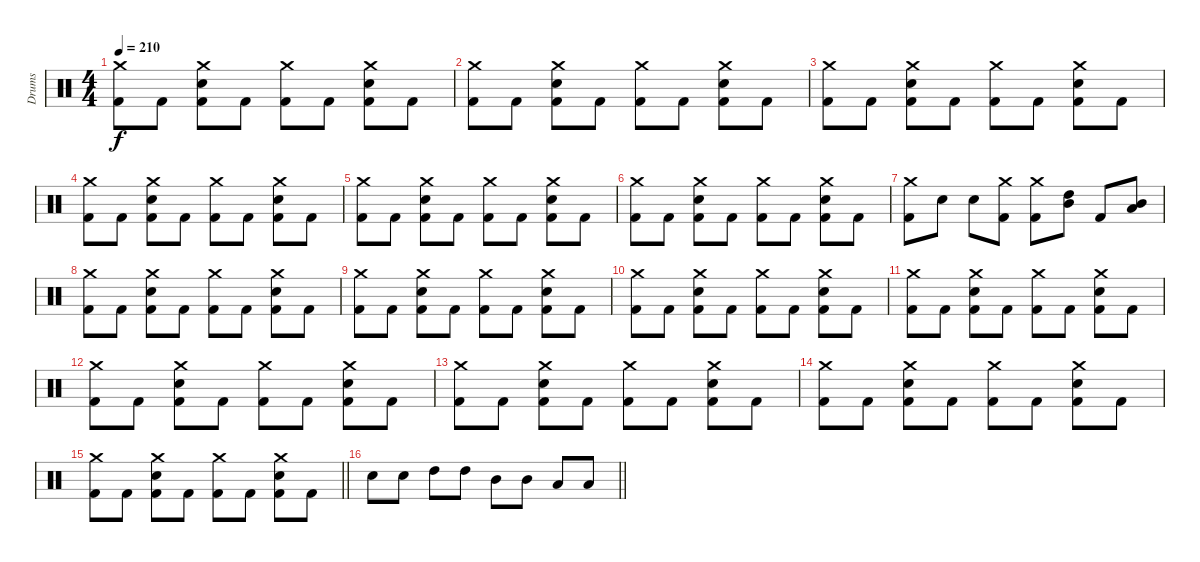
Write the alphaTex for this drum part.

\track ("Drums" "Drums") {instrument percussion}
\staff {score}
\articulation defaults
\ts (4 4)
\tempo 210
\clef neutral
\ks c
("Crash medium (hit)" "Kick (hit) 2").8{dy f} "Kick (hit) 2".8 ("Crash medium (hit)" "Electric Snare (hit)" "Kick (hit) 2").8 "Kick (hit) 2".8 ("Crash medium (hit)" "Kick (hit) 2").8 "Kick (hit) 2".8 ("Crash medium (hit)" "Electric Snare (hit)" "Kick (hit) 2").8 "Kick (hit) 2".8 |
("Crash medium (hit)" "Kick (hit) 2").8 "Kick (hit) 2".8 ("Crash medium (hit)" "Electric Snare (hit)" "Kick (hit) 2").8 "Kick (hit) 2".8 ("Crash medium (hit)" "Kick (hit) 2").8 "Kick (hit) 2".8 ("Crash medium (hit)" "Electric Snare (hit)" "Kick (hit) 2").8 "Kick (hit) 2".8 |
("Crash medium (hit)" "Kick (hit) 2").8 "Kick (hit) 2".8 ("Crash medium (hit)" "Electric Snare (hit)" "Kick (hit) 2").8 "Kick (hit) 2".8 ("Crash medium (hit)" "Kick (hit) 2").8 "Kick (hit) 2".8 ("Crash medium (hit)" "Electric Snare (hit)" "Kick (hit) 2").8 "Kick (hit) 2".8 |
("Crash medium (hit)" "Kick (hit) 2").8 "Kick (hit) 2".8 ("Crash medium (hit)" "Electric Snare (hit)" "Kick (hit) 2").8 "Kick (hit) 2".8 ("Crash medium (hit)" "Kick (hit) 2").8 "Kick (hit) 2".8 ("Crash medium (hit)" "Electric Snare (hit)" "Kick (hit) 2").8 "Kick (hit) 2".8 |
("Crash medium (hit)" "Kick (hit) 2").8 "Kick (hit) 2".8 ("Crash medium (hit)" "Electric Snare (hit)" "Kick (hit) 2").8 "Kick (hit) 2".8 ("Crash medium (hit)" "Kick (hit) 2").8 "Kick (hit) 2".8 ("Crash medium (hit)" "Electric Snare (hit)" "Kick (hit) 2").8 "Kick (hit) 2".8 |
("Crash medium (hit)" "Kick (hit) 2").8 "Kick (hit) 2".8 ("Crash medium (hit)" "Electric Snare (hit)" "Kick (hit) 2").8 "Kick (hit) 2".8 ("Crash medium (hit)" "Kick (hit) 2").8 "Kick (hit) 2".8 ("Crash medium (hit)" "Electric Snare (hit)" "Kick (hit) 2").8 "Kick (hit) 2".8 |
("Crash medium (hit)" "Kick (hit) 2").8 "Electric Snare (hit)".8 "Electric Snare (hit)".8 ("Crash medium (hit)" "Kick (hit) 2").8 ("Crash medium (hit)" "Kick (hit) 2").8 ("High Tom (hit)" "Mid Tom (hit)").8 "Kick (hit) 2".8 ("Mid Tom (hit)" "Low Tom (hit)").8 |
("Crash medium (hit)" "Kick (hit) 2").8 "Kick (hit) 2".8 ("Crash medium (hit)" "Electric Snare (hit)" "Kick (hit) 2").8 "Kick (hit) 2".8 ("Crash medium (hit)" "Kick (hit) 2").8 "Kick (hit) 2".8 ("Crash medium (hit)" "Electric Snare (hit)" "Kick (hit) 2").8 "Kick (hit) 2".8 |
("Crash medium (hit)" "Kick (hit) 2").8 "Kick (hit) 2".8 ("Crash medium (hit)" "Electric Snare (hit)" "Kick (hit) 2").8 "Kick (hit) 2".8 ("Crash medium (hit)" "Kick (hit) 2").8 "Kick (hit) 2".8 ("Crash medium (hit)" "Electric Snare (hit)" "Kick (hit) 2").8 "Kick (hit) 2".8 |
("Crash medium (hit)" "Kick (hit) 2").8 "Kick (hit) 2".8 ("Crash medium (hit)" "Electric Snare (hit)" "Kick (hit) 2").8 "Kick (hit) 2".8 ("Crash medium (hit)" "Kick (hit) 2").8 "Kick (hit) 2".8 ("Crash medium (hit)" "Electric Snare (hit)" "Kick (hit) 2").8 "Kick (hit) 2".8 |
("Crash medium (hit)" "Kick (hit) 2").8 "Kick (hit) 2".8 ("Crash medium (hit)" "Electric Snare (hit)" "Kick (hit) 2").8 "Kick (hit) 2".8 ("Crash medium (hit)" "Kick (hit) 2").8 "Kick (hit) 2".8 ("Crash medium (hit)" "Electric Snare (hit)" "Kick (hit) 2").8 "Kick (hit) 2".8 |
("Crash medium (hit)" "Kick (hit) 2").8 "Kick (hit) 2".8 ("Crash medium (hit)" "Electric Snare (hit)" "Kick (hit) 2").8 "Kick (hit) 2".8 ("Crash medium (hit)" "Kick (hit) 2").8 "Kick (hit) 2".8 ("Crash medium (hit)" "Electric Snare (hit)" "Kick (hit) 2").8 "Kick (hit) 2".8 |
("Crash medium (hit)" "Kick (hit) 2").8 "Kick (hit) 2".8 ("Crash medium (hit)" "Electric Snare (hit)" "Kick (hit) 2").8 "Kick (hit) 2".8 ("Crash medium (hit)" "Kick (hit) 2").8 "Kick (hit) 2".8 ("Crash medium (hit)" "Electric Snare (hit)" "Kick (hit) 2").8 "Kick (hit) 2".8 |
("Crash medium (hit)" "Kick (hit) 2").8 "Kick (hit) 2".8 ("Crash medium (hit)" "Electric Snare (hit)" "Kick (hit) 2").8 "Kick (hit) 2".8 ("Crash medium (hit)" "Kick (hit) 2").8 "Kick (hit) 2".8 ("Crash medium (hit)" "Electric Snare (hit)" "Kick (hit) 2").8 "Kick (hit) 2".8 |
\barLineRight lightlight
("Crash medium (hit)" "Kick (hit) 2").8 "Kick (hit) 2".8 ("Crash medium (hit)" "Electric Snare (hit)" "Kick (hit) 2").8 "Kick (hit) 2".8 ("Crash medium (hit)" "Kick (hit) 2").8 "Kick (hit) 2".8 ("Crash medium (hit)" "Electric Snare (hit)" "Kick (hit) 2").8 "Kick (hit) 2".8 |
\barLineRight lightlight "Electric Snare (hit)".8 "Electric Snare (hit)".8 "High Tom (hit)".8 "High Tom (hit)".8 "Mid Tom (hit)".8 "Mid Tom (hit)".8 "Low Tom (hit)".8 "Low Tom (hit)".8
